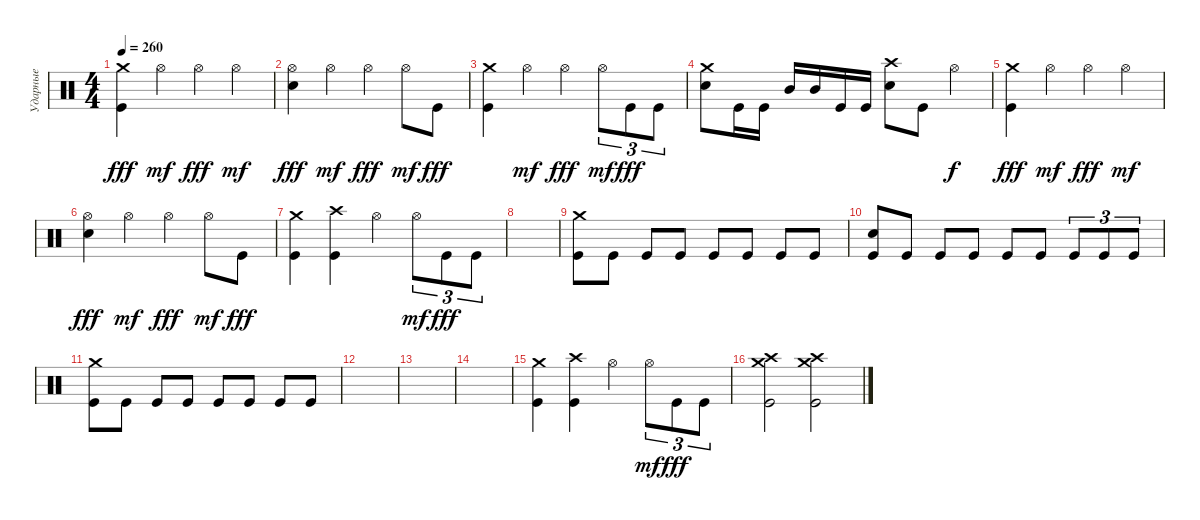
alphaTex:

\track ("Ударные" "Ударные") {instrument percussion}
\staff {score}
\articulation defaults
\ts (4 4)
\tempo 260
\clef neutral
\ks c
("Kick (hit)" "Crash medium (hit)").4{dy fff} "Hi-Hat (open)".4{dy mf} "Hi-Hat (open)".4{dy fff} "Hi-Hat (open)".4{dy mf} |
("Hi-Hat (open)" "Electric Snare (hit)").4{dy fff} "Hi-Hat (open)".4{dy mf} "Hi-Hat (open)".4{dy fff} "Hi-Hat (open)".8{dy mf} "Kick (hit)".8{dy fff} |
("Kick (hit)" "Crash medium (hit)").4 "Hi-Hat (open)".4{dy mf} "Hi-Hat (open)".4{dy fff} "Hi-Hat (open)".8{tu (3 2) dy mf} "Kick (hit)".8{tu (3 2) dy fff} "Kick (hit)".8{tu (3 2)} |
("Electric Snare (hit)" "Crash medium (hit)").8 "Kick (hit)".16 "Kick (hit)".16 "Mid Tom (hit)".16 "Mid Tom (hit)".16 "Kick (hit)".16 "Kick (hit)".16 ("Electric Snare (hit)" "Crash high (hit)").8 "Kick (hit)".8 "Hi-Hat (open)".4{dy f} |
("Kick (hit)" "Crash medium (hit)").4{dy fff} "Hi-Hat (open)".4{dy mf} "Hi-Hat (open)".4{dy fff} "Hi-Hat (open)".4{dy mf} |
("Hi-Hat (open)" "Electric Snare (hit)").4{dy fff} "Hi-Hat (open)".4{dy mf} "Hi-Hat (open)".4{dy fff} "Hi-Hat (open)".8{dy mf} "Kick (hit)".8{dy fff} |
("Kick (hit)" "Crash medium (hit)").4 ("Kick (hit)" "Crash high (hit)").4 "Hi-Hat (open)".4 "Hi-Hat (open)".8{tu (3 2) dy mf} "Kick (hit)".8{tu (3 2) dy fff} "Kick (hit)".8{tu (3 2)} |
|
("Kick (hit)" "Crash medium (hit)").8 "Kick (hit)".8 "Kick (hit)".8 "Kick (hit)".8 "Kick (hit)".8 "Kick (hit)".8 "Kick (hit)".8 "Kick (hit)".8 |
("Kick (hit)" "Electric Snare (hit)").8 "Kick (hit)".8 "Kick (hit)".8 "Kick (hit)".8 "Kick (hit)".8 "Kick (hit)".8 "Kick (hit)".8{tu (3 2)} "Kick (hit)".8{tu (3 2)} "Kick (hit)".8{tu (3 2)} |
("Kick (hit)" "Crash medium (hit)").8 "Kick (hit)".8 "Kick (hit)".8 "Kick (hit)".8 "Kick (hit)".8 "Kick (hit)".8 "Kick (hit)".8 "Kick (hit)".8 |
|
|
|
("Kick (hit)" "Crash medium (hit)").4 ("Kick (hit)" "Crash high (hit)").4 "Hi-Hat (open)".4 "Hi-Hat (open)".8{tu (3 2) dy mf} "Kick (hit)".8{tu (3 2) dy fff} "Kick (hit)".8{tu (3 2)} |
("Kick (hit)" "Crash medium (hit)" "Crash high (hit)").2 ("Crash high (hit)" "Crash medium (hit)" "Kick (hit)").2
